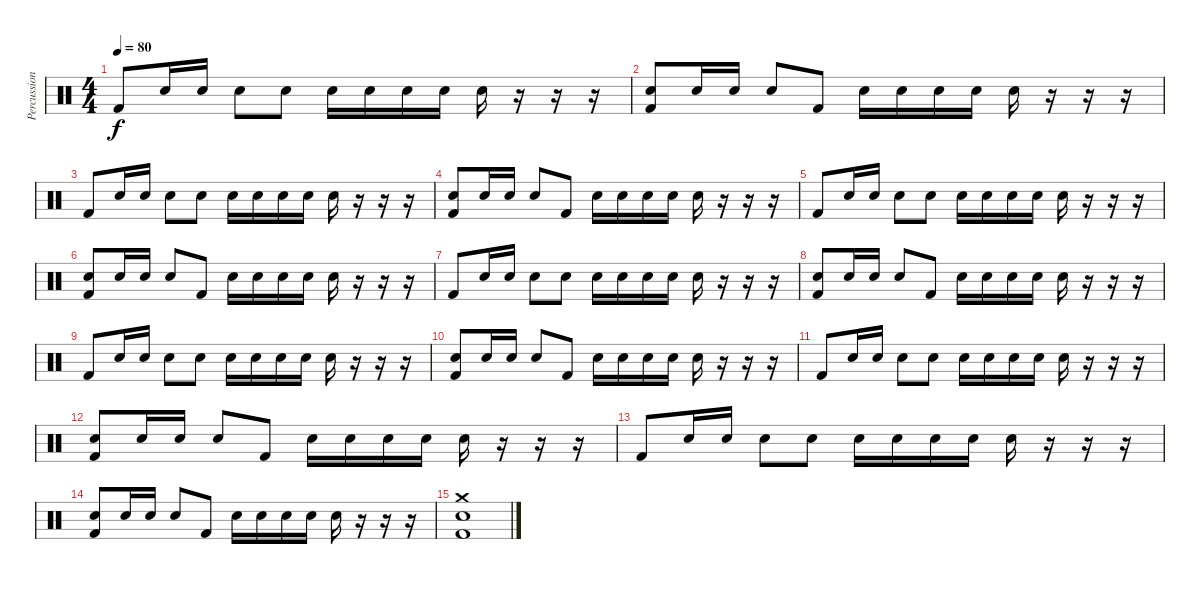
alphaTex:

\track ("Percussion" "Percussion") {instrument percussion}
\staff {score}
\articulation defaults
\ts (4 4)
\tempo 80
\clef neutral
\ks c "Kick (hit) 2".8{dy f} "Snare (hit) 2".16 "Snare (hit) 2".16 "Snare (hit) 2".8 "Snare (hit) 2".8 "Snare (hit) 2".16 "Snare (hit) 2".16 "Snare (hit) 2".16 "Snare (hit) 2".16 "Snare (hit) 2".16
r.16 r.16 r.16 |
("Snare (hit) 2" "Kick (hit) 2").8 "Snare (hit) 2".16 "Snare (hit) 2".16 "Snare (hit) 2".8 "Kick (hit) 2".8 "Snare (hit) 2".16 "Snare (hit) 2".16 "Snare (hit) 2".16 "Snare (hit) 2".16 "Snare (hit) 2".16 r.16 r.16 r.16 |
"Kick (hit) 2".8 "Snare (hit) 2".16 "Snare (hit) 2".16 "Snare (hit) 2".8 "Snare (hit) 2".8 "Snare (hit) 2".16 "Snare (hit) 2".16 "Snare (hit) 2".16 "Snare (hit) 2".16 "Snare (hit) 2".16 r.16 r.16 r.16 |
("Snare (hit) 2" "Kick (hit) 2").8 "Snare (hit) 2".16 "Snare (hit) 2".16 "Snare (hit) 2".8 "Kick (hit) 2".8 "Snare (hit) 2".16 "Snare (hit) 2".16 "Snare (hit) 2".16 "Snare (hit) 2".16 "Snare (hit) 2".16 r.16 r.16 r.16 |
"Kick (hit) 2".8 "Snare (hit) 2".16 "Snare (hit) 2".16 "Snare (hit) 2".8 "Snare (hit) 2".8 "Snare (hit) 2".16 "Snare (hit) 2".16 "Snare (hit) 2".16 "Snare (hit) 2".16 "Snare (hit) 2".16 r.16 r.16 r.16 |
("Snare (hit) 2" "Kick (hit) 2").8 "Snare (hit) 2".16 "Snare (hit) 2".16 "Snare (hit) 2".8 "Kick (hit) 2".8 "Snare (hit) 2".16 "Snare (hit) 2".16 "Snare (hit) 2".16 "Snare (hit) 2".16 "Snare (hit) 2".16 r.16 r.16 r.16 |
"Kick (hit) 2".8 "Snare (hit) 2".16 "Snare (hit) 2".16 "Snare (hit) 2".8 "Snare (hit) 2".8 "Snare (hit) 2".16 "Snare (hit) 2".16 "Snare (hit) 2".16 "Snare (hit) 2".16 "Snare (hit) 2".16 r.16 r.16 r.16 |
("Snare (hit) 2" "Kick (hit) 2").8 "Snare (hit) 2".16 "Snare (hit) 2".16 "Snare (hit) 2".8 "Kick (hit) 2".8 "Snare (hit) 2".16 "Snare (hit) 2".16 "Snare (hit) 2".16 "Snare (hit) 2".16 "Snare (hit) 2".16 r.16 r.16 r.16 |
"Kick (hit) 2".8 "Snare (hit) 2".16 "Snare (hit) 2".16 "Snare (hit) 2".8 "Snare (hit) 2".8 "Snare (hit) 2".16 "Snare (hit) 2".16 "Snare (hit) 2".16 "Snare (hit) 2".16 "Snare (hit) 2".16 r.16 r.16 r.16 |
("Snare (hit) 2" "Kick (hit) 2").8 "Snare (hit) 2".16 "Snare (hit) 2".16 "Snare (hit) 2".8 "Kick (hit) 2".8 "Snare (hit) 2".16 "Snare (hit) 2".16 "Snare (hit) 2".16 "Snare (hit) 2".16 "Snare (hit) 2".16 r.16 r.16 r.16 |
"Kick (hit) 2".8 "Snare (hit) 2".16 "Snare (hit) 2".16 "Snare (hit) 2".8 "Snare (hit) 2".8 "Snare (hit) 2".16 "Snare (hit) 2".16 "Snare (hit) 2".16 "Snare (hit) 2".16 "Snare (hit) 2".16 r.16 r.16 r.16 |
("Snare (hit) 2" "Kick (hit) 2").8 "Snare (hit) 2".16 "Snare (hit) 2".16 "Snare (hit) 2".8 "Kick (hit) 2".8 "Snare (hit) 2".16 "Snare (hit) 2".16 "Snare (hit) 2".16 "Snare (hit) 2".16 "Snare (hit) 2".16 r.16 r.16 r.16 |
"Kick (hit) 2".8 "Snare (hit) 2".16 "Snare (hit) 2".16 "Snare (hit) 2".8 "Snare (hit) 2".8 "Snare (hit) 2".16 "Snare (hit) 2".16 "Snare (hit) 2".16 "Snare (hit) 2".16 "Snare (hit) 2".16 r.16 r.16 r.16 |
("Snare (hit) 2" "Kick (hit) 2").8 "Snare (hit) 2".16 "Snare (hit) 2".16 "Snare (hit) 2".8 "Kick (hit) 2".8 "Snare (hit) 2".16 "Snare (hit) 2".16 "Snare (hit) 2".16 "Snare (hit) 2".16 "Snare (hit) 2".16 r.16 r.16 r.16 |
("Crash medium (hit)" "Snare (hit) 2" "Kick (hit) 2").1
